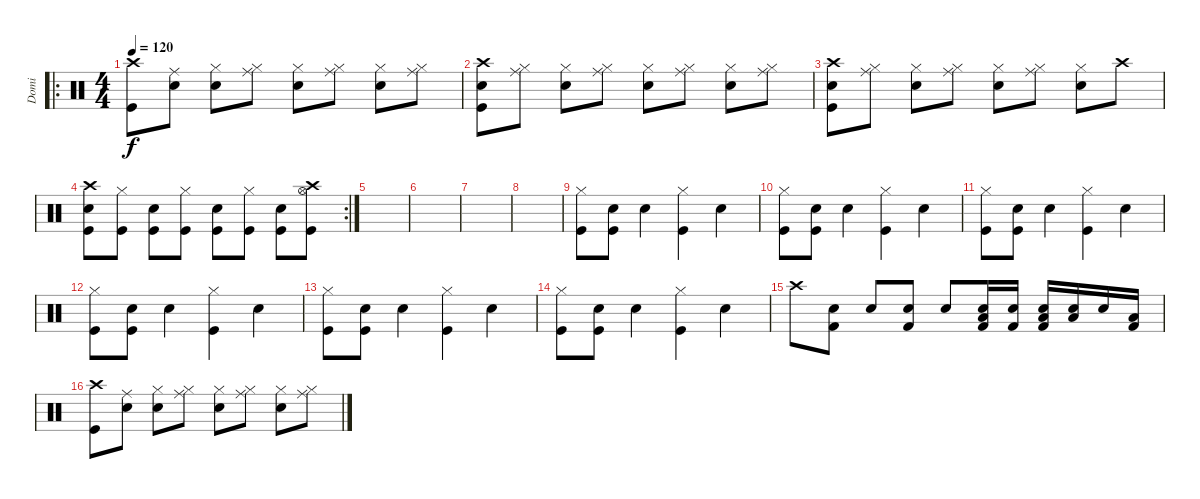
\track ("Domi" "Domi") {instrument percussion}
\staff {score}
\articulation defaults
\ro
\ts (4 4)
\tempo 120
\clef neutral
\ks c
("Crash high (hit)" "Kick (hit)").8{dy f} ("Ride (middle)" "Snare (hit) 2").8 ("Hi-Hat (closed)" "Snare (hit) 2").8 ("Ride (middle)" "Hi-Hat (closed)").8 ("Hi-Hat (closed)" "Snare (hit) 2").8 ("Ride (middle)" "Hi-Hat (closed)").8 ("Hi-Hat (closed)" "Snare (hit) 2").8 ("Ride (middle)" "Hi-Hat (closed)").8 |
("Kick (hit)" "Snare (hit) 2" "Crash high (hit)").8 ("Ride (middle)" "Hi-Hat (closed)").8 ("Hi-Hat (closed)" "Snare (hit) 2").8 ("Ride (middle)" "Hi-Hat (closed)").8 ("Hi-Hat (closed)" "Snare (hit) 2").8 ("Ride (middle)" "Hi-Hat (closed)").8 ("Hi-Hat (closed)" "Snare (hit) 2").8 ("Ride (middle)" "Hi-Hat (closed)").8 |
("Kick (hit)" "Snare (hit) 2" "Crash high (hit)").8 ("Ride (middle)" "Hi-Hat (closed)").8 ("Hi-Hat (closed)" "Snare (hit) 2").8 ("Ride (middle)" "Hi-Hat (closed)").8 ("Hi-Hat (closed)" "Snare (hit) 2").8 ("Ride (middle)" "Hi-Hat (closed)").8 ("Hi-Hat (closed)" "Snare (hit) 2").8 "Crash high (hit)".8 |
\rc 2
("Crash high (hit)" "Snare (hit) 2" "Kick (hit)").8 ("Hi-Hat (closed)" "Kick (hit)").8 ("Snare (hit) 2" "Kick (hit)").8 ("Hi-Hat (closed)" "Kick (hit)").8 ("Snare (hit) 2" "Kick (hit)").8 ("Hi-Hat (closed)" "Kick (hit)").8 ("Snare (hit) 2" "Kick (hit)").8 ("Hi-Hat (open)" "Crash high (hit)" "Kick (hit)").8 |
|
|
|
|
("Hi-Hat (closed)" "Kick (hit)").8 ("Snare (hit) 2" "Kick (hit)").8 "Snare (hit) 2".4 ("Hi-Hat (closed)" "Kick (hit)").4 "Snare (hit) 2".4 |
("Hi-Hat (closed)" "Kick (hit)").8 ("Snare (hit) 2" "Kick (hit)").8 "Snare (hit) 2".4 ("Hi-Hat (closed)" "Kick (hit)").4 "Snare (hit) 2".4 |
("Hi-Hat (closed)" "Kick (hit)").8 ("Snare (hit) 2" "Kick (hit)").8 "Snare (hit) 2".4 ("Hi-Hat (closed)" "Kick (hit)").4 "Snare (hit) 2".4 |
("Hi-Hat (closed)" "Kick (hit)").8 ("Snare (hit) 2" "Kick (hit)").8 "Snare (hit) 2".4 ("Hi-Hat (closed)" "Kick (hit)").4 "Snare (hit) 2".4 |
("Hi-Hat (closed)" "Kick (hit)").8 ("Snare (hit) 2" "Kick (hit)").8 "Snare (hit) 2".4 ("Hi-Hat (closed)" "Kick (hit)").4 "Snare (hit) 2".4 |
("Hi-Hat (closed)" "Kick (hit)").8 ("Snare (hit) 2" "Kick (hit)").8 "Snare (hit) 2".4 ("Hi-Hat (closed)" "Kick (hit)").4 "Snare (hit) 2".4 |
"Crash high (hit)".8 ("Snare (hit) 2" "Kick (hit) 2").8 "Snare (hit) 2".8 ("Snare (hit) 2" "Kick (hit) 2").8 "Snare (hit) 2".8 ("Low Floor Tom (hit)" "Snare (hit) 2" "Kick (hit) 2").16 ("Snare (hit) 2" "Kick (hit) 2").16 ("Low Floor Tom (hit)" "Snare (hit) 2" "Kick (hit) 2").16 ("Low Floor Tom (hit)" "Snare (hit) 2").16 "Snare (hit) 2".16 ("Low Floor Tom (hit)" "Kick (hit) 2").16 |
("Crash high (hit)" "Kick (hit)").8 ("Ride (middle)" "Snare (hit) 2").8 ("Hi-Hat (closed)" "Snare (hit) 2").8 ("Ride (middle)" "Hi-Hat (closed)").8 ("Hi-Hat (closed)" "Snare (hit) 2").8 ("Ride (middle)" "Hi-Hat (closed)").8 ("Hi-Hat (closed)" "Snare (hit) 2").8 ("Ride (middle)" "Hi-Hat (closed)").8
